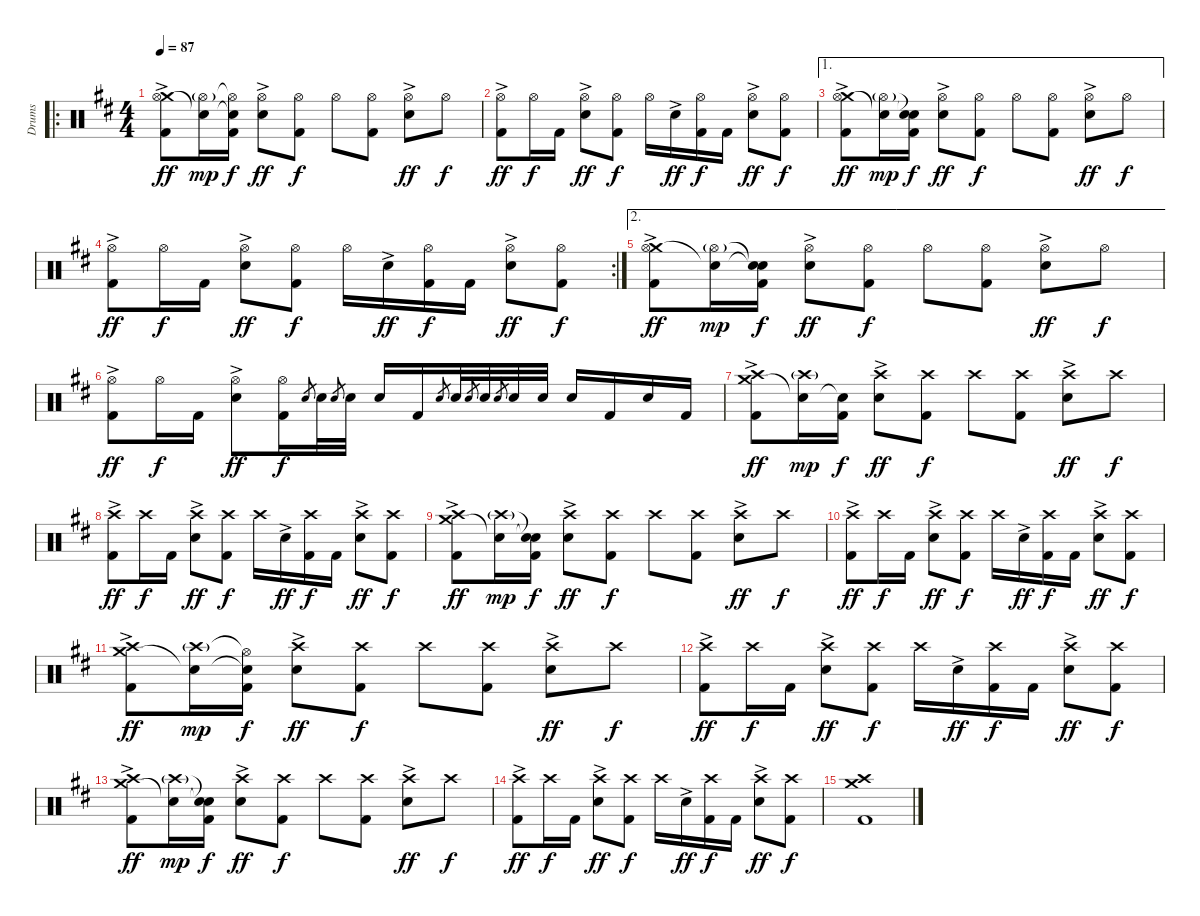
\track ("Drums" "Drums") {instrument percussion}
\staff {score}
\articulation defaults
\ro
\ts (4 4)
\tempo 87
\clef neutral
\ks d
("Crash medium (hit)" "Hi-Hat (open)" "Kick (hit) 2"{ac}).8{dy ff} ("Snare (hit)"{t} "Hi-Hat (open)"{g}).16{dy mp} ("Snare (hit)"{t} "Hi-Hat (open)"{t} "Kick (hit) 2").16{dy f} ("Hi-Hat (open)" "Electric Snare (hit)"{ac}).8{dy ff} ("Hi-Hat (open)" "Kick (hit) 2").8{dy f} "Hi-Hat (open)".8 ("Hi-Hat (open)" "Kick (hit) 2").8 ("Hi-Hat (open)" "Electric Snare (hit)"{ac}).8{dy ff} "Hi-Hat (open)".8{dy f} |
("Hi-Hat (open)" "Kick (hit) 2"{ac}).8{dy ff} "Hi-Hat (open)".16{dy f} "Kick (hit) 2".16 ("Hi-Hat (open)" "Electric Snare (hit)"{ac}).8{dy ff} ("Hi-Hat (open)" "Kick (hit) 2").8{dy f} "Hi-Hat (open)".16 "Electric Snare (hit)"{ac}.16{dy ff} ("Hi-Hat (open)" "Kick (hit) 2").16{dy f} "Kick (hit) 2".16 ("Hi-Hat (open)" "Electric Snare (hit)"{ac}).8{dy ff} ("Hi-Hat (open)" "Kick (hit) 2").8{dy f} |
\ae 1
("Crash medium (hit)" "Hi-Hat (open)" "Kick (hit) 2"{ac}).8{dy ff} ("Snare (hit)"{t} "Hi-Hat (open)"{g}).16{dy mp} ("Snare (hit)"{t} "Snare (hit)"{t} "Kick (hit) 2").16{dy f} ("Hi-Hat (open)" "Electric Snare (hit)"{ac}).8{dy ff} ("Hi-Hat (open)" "Kick (hit) 2").8{dy f} "Hi-Hat (open)".8 ("Hi-Hat (open)" "Kick (hit) 2").8 ("Hi-Hat (open)" "Electric Snare (hit)"{ac}).8{dy ff} "Hi-Hat (open)".8{dy f} |
\rc 2
("Hi-Hat (open)" "Kick (hit) 2"{ac}).8{dy ff} "Hi-Hat (open)".16{dy f} "Kick (hit) 2".16 ("Hi-Hat (open)" "Electric Snare (hit)"{ac}).8{dy ff} ("Hi-Hat (open)" "Kick (hit) 2").8{dy f} "Hi-Hat (open)".16 "Electric Snare (hit)"{ac}.16{dy ff} ("Hi-Hat (open)" "Kick (hit) 2").16{dy f} "Kick (hit) 2".16 ("Hi-Hat (open)" "Electric Snare (hit)"{ac}).8{dy ff} ("Hi-Hat (open)" "Kick (hit) 2").8{dy f} |
\ae 2
("Crash medium (hit)" "Hi-Hat (open)" "Kick (hit) 2"{ac}).8{dy ff} ("Snare (hit)"{t} "Hi-Hat (open)"{g}).16{dy mp} ("Snare (hit)"{t} "Snare (hit)"{t} "Kick (hit) 2").16{dy f} ("Hi-Hat (open)" "Electric Snare (hit)"{ac}).8{dy ff} ("Hi-Hat (open)" "Kick (hit) 2").8{dy f} "Hi-Hat (open)".8 ("Hi-Hat (open)" "Kick (hit) 2").8 ("Hi-Hat (open)" "Electric Snare (hit)"{ac}).8{dy ff} "Hi-Hat (open)".8{dy f} |
("Hi-Hat (open)" "Kick (hit) 2"{ac}).8{dy ff} "Hi-Hat (open)".16{dy f} "Kick (hit) 2".16 ("Hi-Hat (open)" "Electric Snare (hit)"{ac}).8{dy ff} ("Hi-Hat (open)" "Kick (hit) 2").16{dy f} "Electric Snare (hit)".8{gr} "Electric Snare (hit)".32 "Electric Snare (hit)".8{gr} "Electric Snare (hit)".32 "Electric Snare (hit)".16 "Kick (hit) 2".16 "Electric Snare (hit)".8{gr} "Electric Snare (hit)".32 "Electric Snare (hit)".8{gr} "Electric Snare (hit)".32 "Electric Snare (hit)".8{gr} "Electric Snare (hit)".32 "Electric Snare (hit)".32 "Electric Snare (hit)".16 "Kick (hit) 2".16 "Electric Snare (hit)".16 "Kick (hit) 2".16 |
("Crash medium (hit)" "Crash high (hit)" "Kick (hit) 2"{ac}).8{dy ff} ("Snare (hit)"{t} "Crash high (hit)"{g}).16{dy mp} ("Snare (hit)"{t} "Kick (hit) 2").16{dy f} ("Crash high (hit)" "Electric Snare (hit)"{ac}).8{dy ff} ("Crash high (hit)" "Kick (hit) 2").8{dy f} "Crash high (hit)".8 ("Crash high (hit)" "Kick (hit) 2").8 ("Crash high (hit)" "Electric Snare (hit)"{ac}).8{dy ff} "Crash high (hit)".8{dy f} |
("Crash high (hit)" "Kick (hit) 2"{ac}).8{dy ff} "Crash high (hit)".16{dy f} "Kick (hit) 2".16 ("Crash high (hit)" "Electric Snare (hit)"{ac}).8{dy ff} ("Crash high (hit)" "Kick (hit) 2").8{dy f} "Crash high (hit)".16 "Electric Snare (hit)"{ac}.16{dy ff} ("Crash high (hit)" "Kick (hit) 2").16{dy f} "Kick (hit) 2".16 ("Crash high (hit)" "Electric Snare (hit)"{ac}).8{dy ff} ("Crash high (hit)" "Kick (hit) 2").8{dy f} |
("Crash medium (hit)" "Crash high (hit)" "Kick (hit) 2"{ac}).8{dy ff} ("Snare (hit)"{t} "Crash high (hit)"{g}).16{dy mp} ("Snare (hit)"{t} "Snare (hit)"{t} "Kick (hit) 2").16{dy f} ("Crash high (hit)" "Electric Snare (hit)"{ac}).8{dy ff} ("Crash high (hit)" "Kick (hit) 2").8{dy f} "Crash high (hit)".8 ("Crash high (hit)" "Kick (hit) 2").8 ("Crash high (hit)" "Electric Snare (hit)"{ac}).8{dy ff} "Crash high (hit)".8{dy f} |
("Crash high (hit)" "Kick (hit) 2"{ac}).8{dy ff} "Crash high (hit)".16{dy f} "Kick (hit) 2".16 ("Crash high (hit)" "Electric Snare (hit)"{ac}).8{dy ff} ("Crash high (hit)" "Kick (hit) 2").8{dy f} "Crash high (hit)".16 "Electric Snare (hit)"{ac}.16{dy ff} ("Crash high (hit)" "Kick (hit) 2").16{dy f} "Kick (hit) 2".16 ("Crash high (hit)" "Electric Snare (hit)"{ac}).8{dy ff} ("Crash high (hit)" "Kick (hit) 2").8{dy f} |
("Crash medium (hit)" "Crash high (hit)" "Kick (hit) 2"{ac}).8{dy ff} ("Snare (hit)"{t} "Crash high (hit)"{g}).16{dy mp} ("Snare (hit)"{t} "Hi-Hat (open)"{t} "Kick (hit) 2").16{dy f} ("Crash high (hit)" "Electric Snare (hit)"{ac}).8{dy ff} ("Crash high (hit)" "Kick (hit) 2").8{dy f} "Crash high (hit)".8 ("Crash high (hit)" "Kick (hit) 2").8 ("Crash high (hit)" "Electric Snare (hit)"{ac}).8{dy ff} "Crash high (hit)".8{dy f} |
("Crash high (hit)" "Kick (hit) 2"{ac}).8{dy ff} "Crash high (hit)".16{dy f} "Kick (hit) 2".16 ("Crash high (hit)" "Electric Snare (hit)"{ac}).8{dy ff} ("Crash high (hit)" "Kick (hit) 2").8{dy f} "Crash high (hit)".16 "Electric Snare (hit)"{ac}.16{dy ff} ("Crash high (hit)" "Kick (hit) 2").16{dy f} "Kick (hit) 2".16 ("Crash high (hit)" "Electric Snare (hit)"{ac}).8{dy ff} ("Crash high (hit)" "Kick (hit) 2").8{dy f} |
("Crash medium (hit)" "Crash high (hit)" "Kick (hit) 2"{ac}).8{dy ff} ("Snare (hit)"{t} "Crash high (hit)"{g}).16{dy mp} ("Snare (hit)"{t} "Snare (hit)"{t} "Kick (hit) 2").16{dy f} ("Crash high (hit)" "Electric Snare (hit)"{ac}).8{dy ff} ("Crash high (hit)" "Kick (hit) 2").8{dy f} "Crash high (hit)".8 ("Crash high (hit)" "Kick (hit) 2").8 ("Crash high (hit)" "Electric Snare (hit)"{ac}).8{dy ff} "Crash high (hit)".8{dy f} |
("Crash high (hit)" "Kick (hit) 2"{ac}).8{dy ff} "Crash high (hit)".16{dy f} "Kick (hit) 2".16 ("Crash high (hit)" "Electric Snare (hit)"{ac}).8{dy ff} ("Crash high (hit)" "Kick (hit) 2").8{dy f} "Crash high (hit)".16 "Electric Snare (hit)"{ac}.16{dy ff} ("Crash high (hit)" "Kick (hit) 2").16{dy f} "Kick (hit) 2".16 ("Crash high (hit)" "Electric Snare (hit)"{ac}).8{dy ff} ("Crash high (hit)" "Kick (hit) 2").8{dy f} |
("Crash medium (hit)" "Crash high (hit)" "Kick (hit) 2").1
